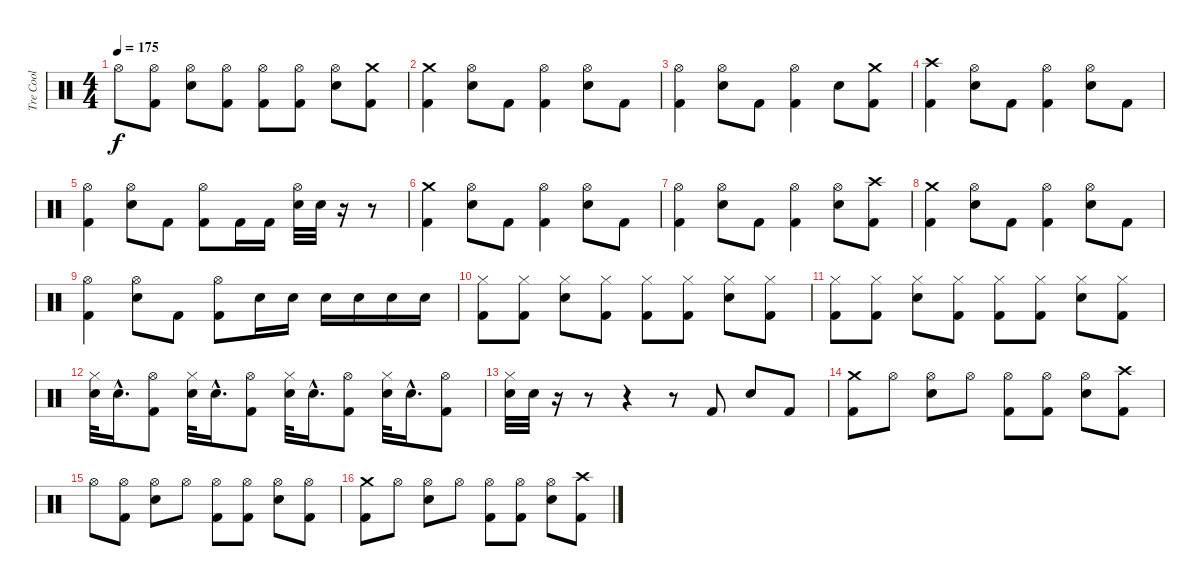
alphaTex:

\track ("Tre Cool" "Tre Cool") {instrument percussion}
\staff {score}
\articulation defaults
\ts (4 4)
\tempo 175
\clef neutral
\ks c "Hi-Hat (open)".8{dy f}
("Kick (hit) 2" "Hi-Hat (open)").8 ("Snare (hit) 2" "Hi-Hat (open)").8 ("Kick (hit) 2" "Hi-Hat (open)").8 ("Kick (hit) 2" "Hi-Hat (open)").8 ("Kick (hit) 2" "Hi-Hat (open)").8 ("Snare (hit) 2" "Hi-Hat (open)").8 ("Kick (hit) 2" "Crash medium (hit)").8 |
("Kick (hit) 2" "Crash medium (hit)").4 ("Snare (hit) 2" "Hi-Hat (open)").8 "Kick (hit) 2".8 ("Kick (hit) 2" "Hi-Hat (open)").4 ("Snare (hit) 2" "Hi-Hat (open)").8 "Kick (hit) 2".8 |
("Kick (hit) 2" "Hi-Hat (open)").4 ("Snare (hit) 2" "Hi-Hat (open)").8 "Kick (hit) 2".8 ("Kick (hit) 2" "Hi-Hat (open)").4 "Snare (hit) 2".8 ("Kick (hit) 2" "Crash medium (hit)").8 |
("Kick (hit) 2" "Crash high (hit)").4 ("Snare (hit) 2" "Hi-Hat (open)").8 "Kick (hit) 2".8 ("Kick (hit) 2" "Hi-Hat (open)").4 ("Snare (hit) 2" "Hi-Hat (open)").8 "Kick (hit) 2".8 |
("Kick (hit) 2" "Hi-Hat (open)").4 ("Snare (hit) 2" "Hi-Hat (open)").8 "Kick (hit) 2".8 ("Kick (hit) 2" "Hi-Hat (open)").8 "Kick (hit) 2".16 "Kick (hit) 2".16 ("Snare (hit) 2" "Hi-Hat (open)").32 "Snare (hit) 2".32 r.16 r.8 |
("Kick (hit) 2" "Crash medium (hit)").4 ("Snare (hit) 2" "Hi-Hat (open)").8 "Kick (hit) 2".8 ("Kick (hit) 2" "Hi-Hat (open)").4 ("Snare (hit) 2" "Hi-Hat (open)").8 "Kick (hit) 2".8 |
("Kick (hit) 2" "Hi-Hat (open)").4 ("Snare (hit) 2" "Hi-Hat (open)").8 "Kick (hit) 2".8 ("Kick (hit) 2" "Hi-Hat (open)").4 ("Snare (hit) 2" "Hi-Hat (open)").8 ("Kick (hit) 2" "Crash high (hit)").8 |
("Kick (hit) 2" "Crash medium (hit)").4 ("Snare (hit) 2" "Hi-Hat (open)").8 "Kick (hit) 2".8 ("Kick (hit) 2" "Hi-Hat (open)").4 ("Snare (hit) 2" "Hi-Hat (open)").8 "Kick (hit) 2".8 |
("Kick (hit) 2" "Hi-Hat (open)").4 ("Snare (hit) 2" "Hi-Hat (open)").8 "Kick (hit) 2".8 ("Kick (hit) 2" "Hi-Hat (open)").8 "Snare (hit) 2".16 "Snare (hit) 2".16 "Snare (hit) 2".16 "Snare (hit) 2".16 "Snare (hit) 2".16 "Snare (hit) 2".16 |
("Kick (hit) 2" "Hi-Hat (closed)").8 ("Kick (hit) 2" "Hi-Hat (closed)").8 ("Snare (hit) 2" "Hi-Hat (closed)").8 ("Kick (hit) 2" "Hi-Hat (closed)").8 ("Kick (hit) 2" "Hi-Hat (closed)").8 ("Kick (hit) 2" "Hi-Hat (closed)").8 ("Snare (hit) 2" "Hi-Hat (closed)").8 ("Kick (hit) 2" "Hi-Hat (closed)").8 |
("Kick (hit) 2" "Hi-Hat (closed)").8 ("Kick (hit) 2" "Hi-Hat (closed)").8 ("Snare (hit) 2" "Hi-Hat (closed)").8 ("Kick (hit) 2" "Hi-Hat (closed)").8 ("Kick (hit) 2" "Hi-Hat (closed)").8 ("Kick (hit) 2" "Hi-Hat (closed)").8 ("Snare (hit) 2" "Hi-Hat (closed)").8 ("Kick (hit) 2" "Hi-Hat (closed)").8 |
("Snare (hit) 2" "Hi-Hat (closed)").32 "Snare (hit) 2"{hac}.16{d} ("Kick (hit) 2" "Hi-Hat (open)").8 ("Snare (hit) 2" "Hi-Hat (closed)").32 "Snare (hit) 2"{hac}.16{d} ("Kick (hit) 2" "Hi-Hat (open)").8 ("Snare (hit) 2" "Hi-Hat (closed)").32 "Snare (hit) 2"{hac}.16{d} ("Kick (hit) 2" "Hi-Hat (open)").8 ("Snare (hit) 2" "Hi-Hat (closed)").32 "Snare (hit) 2"{hac}.16{d} ("Kick (hit) 2" "Hi-Hat (open)").8 |
("Snare (hit) 2" "Hi-Hat (closed)").32 "Snare (hit) 2".32 r.16 r.8 r.4 r.8 "Kick (hit) 2".8 "Snare (hit) 2".8 "Kick (hit) 2".8 |
("Kick (hit) 2" "Crash medium (hit)").8 "Hi-Hat (open)".8 ("Snare (hit) 2" "Hi-Hat (open)").8 "Hi-Hat (open)".8 ("Kick (hit) 2" "Hi-Hat (open)").8 ("Kick (hit) 2" "Hi-Hat (open)").8 ("Snare (hit) 2" "Hi-Hat (open)").8 ("Kick (hit) 2" "Crash high (hit)").8 |
"Hi-Hat (open)".8 ("Kick (hit) 2" "Hi-Hat (open)").8 ("Snare (hit) 2" "Hi-Hat (open)").8 "Hi-Hat (open)".8 ("Kick (hit) 2" "Hi-Hat (open)").8 ("Kick (hit) 2" "Hi-Hat (open)").8 ("Snare (hit) 2" "Hi-Hat (open)").8 ("Kick (hit) 2" "Hi-Hat (open)").8 |
("Kick (hit) 2" "Crash medium (hit)").8 "Hi-Hat (open)".8 ("Snare (hit) 2" "Hi-Hat (open)").8 "Hi-Hat (open)".8 ("Kick (hit) 2" "Hi-Hat (open)").8 ("Kick (hit) 2" "Hi-Hat (open)").8 ("Snare (hit) 2" "Hi-Hat (open)").8 ("Kick (hit) 2" "Crash high (hit)").8
